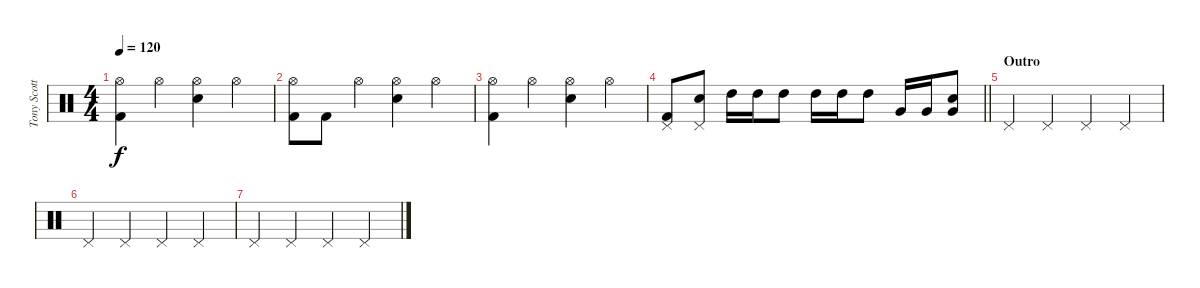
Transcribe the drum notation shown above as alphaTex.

\track ("Tony Scotto" "Tony Scott") {instrument percussion}
\staff {score}
\articulation defaults
\ts (4 4)
\tempo 120
\clef neutral
\ks c
("Hi-Hat (open)" "Kick (hit) 2").4{dy f} "Hi-Hat (open)".4 ("Hi-Hat (open)" "Snare (hit) 2").4 "Hi-Hat (open)".4 |
("Hi-Hat (open)" "Kick (hit) 2").8 "Kick (hit) 2".8 "Hi-Hat (open)".4 ("Hi-Hat (open)" "Snare (hit) 2").4 "Hi-Hat (open)".4 |
("Hi-Hat (open)" "Kick (hit) 2").4 "Hi-Hat (open)".4 ("Hi-Hat (open)" "Snare (hit) 2").4 "Hi-Hat (open)".4 |
\barLineRight lightlight
("Pedal Hi-Hat (hit)" "Kick (hit) 2").8 ("Pedal Hi-Hat (hit)" "Snare (hit) 2").8 "High Tom (hit)".16 "High Tom (hit)".16 "High Tom (hit)".8 "High Tom (hit)".16 "High Tom (hit)".16 "High Tom (hit)".8 "Very Low Tom (hit)".16 "Very Low Tom (hit)".16 ("Very Low Tom (hit)" "Snare (hit) 2").8 |
\section ("" "Outro")
"Pedal Hi-Hat (hit)".4 "Pedal Hi-Hat (hit)".4 "Pedal Hi-Hat (hit)".4 "Pedal Hi-Hat (hit)".4 |
"Pedal Hi-Hat (hit)".4 "Pedal Hi-Hat (hit)".4 "Pedal Hi-Hat (hit)".4 "Pedal Hi-Hat (hit)".4 |
"Pedal Hi-Hat (hit)".4 "Pedal Hi-Hat (hit)".4 "Pedal Hi-Hat (hit)".4 "Pedal Hi-Hat (hit)".4
